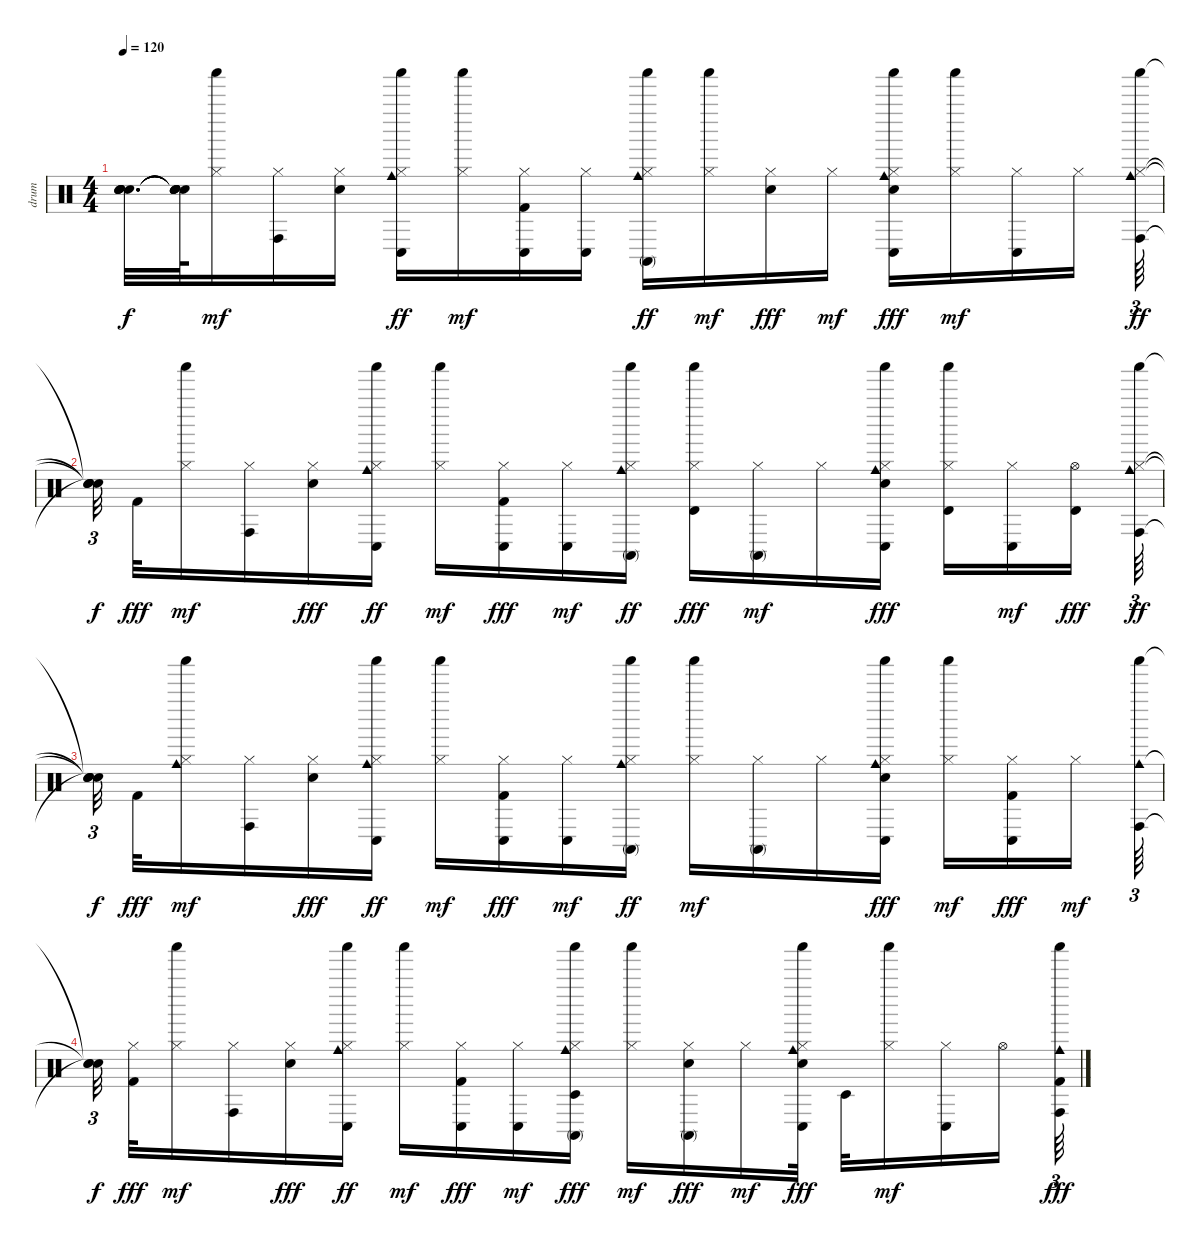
\track ("drum" "drum") {instrument percussion}
\staff {score}
\articulation defaults
\ts (4 4)
\tempo 120
\clef neutral
\ks c
("Snare (hit)"{t} "Snare (hit)"{t} "Snare (hit)"{t} "Snare (hit)"{t} "Snare (hit)"{t}).32{d dy f} ("Snare (hit)"{t} "Snare (hit)"{t} "Snare (hit)"{t} "Snare (hit)"{t} "Snare (hit)"{t}).64 ("Shaker (hit)" "Hi-Hat (closed)").16{dy mf} ("Conga high (hit)" "Hi-Hat (closed)").16 ("Electric Snare (hit)" "Hi-Hat (closed)").16 ("Conga low (hit)" "Cowbell medium (hit)" "Shaker (hit)" "Hi-Hat (closed)").16{dy ff} ("Hi-Hat (closed)" "Shaker (hit)").16{dy mf} ("Conga low (hit)" "Kick (hit) 2" "Hi-Hat (closed)").16 ("Hi-Hat (closed)" "Conga low (hit)").16 ("Cowbell medium (hit)" "Conga high (mute)" "Shaker (hit)" "Hi-Hat (closed)").16{dy ff} ("Shaker (hit)" "Hi-Hat (closed)").16{dy mf} ("Hi-Hat (closed)" "Electric Snare (hit)").16{dy fff} "Hi-Hat (closed)".16{dy mf} ("Conga low (hit)" "Shaker (hit)" "Cowbell medium (hit)" "Hi-Hat (closed)" "Electric Snare (hit)").16{dy fff} ("Shaker (hit)" "Hi-Hat (closed)").16{dy mf} ("Conga low (hit)" "Hi-Hat (closed)").16 "Hi-Hat (closed)".16 ("Conga high (hit)" "Shaker (hit)" "Cowbell medium (hit)" "Hi-Hat (closed)").64{tu (3 2) dy ff} |
("Snare (hit)"{t} "Snare (hit)"{t} "Snare (hit)"{t} "Snare (hit)"{t}).32{tu (3 2) dy f beam splitsecondary} "Kick (hit) 2".32{dy fff} ("Shaker (hit)" "Hi-Hat (closed)").16{dy mf} ("Hi-Hat (closed)" "Conga high (hit)").16 ("Hi-Hat (closed)" "Electric Snare (hit)").16{dy fff} ("Conga low (hit)" "Cowbell medium (hit)" "Shaker (hit)" "Hi-Hat (closed)").16{dy ff} ("Hi-Hat (closed)" "Shaker (hit)").16{dy mf} ("Conga low (hit)" "Hi-Hat (closed)" "Kick (hit) 2").16{dy fff} ("Conga low (hit)" "Hi-Hat (closed)").16{dy mf} ("Conga high (mute)" "Shaker (hit)" "Cowbell medium (hit)" "Hi-Hat (closed)").16{dy ff} ("Shaker (hit)" "Hi-Hat (closed)" "Timbale high (hit)").16{dy fff} ("Conga high (mute)" "Hi-Hat (closed)").16{dy mf} "Hi-Hat (closed)".16 ("Conga low (hit)" "Shaker (hit)" "Cowbell medium (hit)" "Hi-Hat (closed)" "Electric Snare (hit)").16{dy fff} ("Hi-Hat (closed)" "Shaker (hit)" "Timbale high (hit)").16 ("Conga low (hit)" "Hi-Hat (closed)").16{dy mf} ("Hi-Hat (open)" "Timbale high (hit)").16{dy fff beam splitsecondary} ("Conga high (hit)" "Shaker (hit)" "Cowbell medium (hit)" "Hi-Hat (closed)").64{tu (3 2) dy ff} |
("Snare (hit)"{t} "Snare (hit)"{t} "Snare (hit)"{t} "Snare (hit)"{t}).32{tu (3 2) dy f beam splitsecondary} "Kick (hit) 2".32{dy fff} ("Cowbell medium (hit)" "Shaker (hit)" "Hi-Hat (closed)").16{dy mf} ("Conga high (hit)" "Hi-Hat (closed)").16 ("Hi-Hat (closed)" "Electric Snare (hit)").16{dy fff} ("Conga low (hit)" "Shaker (hit)" "Cowbell medium (hit)" "Hi-Hat (closed)").16{dy ff} ("Shaker (hit)" "Hi-Hat (closed)").16{dy mf} ("Conga low (hit)" "Hi-Hat (closed)" "Kick (hit) 2").16{dy fff} ("Conga low (hit)" "Hi-Hat (closed)").16{dy mf} ("Conga high (mute)" "Cowbell medium (hit)" "Shaker (hit)" "Hi-Hat (closed)").16{dy ff} ("Shaker (hit)" "Hi-Hat (closed)").16{dy mf} ("Conga high (mute)" "Hi-Hat (closed)").16 "Hi-Hat (closed)".16 ("Conga low (hit)" "Cowbell medium (hit)" "Shaker (hit)" "Hi-Hat (closed)" "Electric Snare (hit)").16{dy fff} ("Shaker (hit)" "Hi-Hat (closed)").16{dy mf} ("Conga low (hit)" "Hi-Hat (closed)" "Kick (hit) 2").16{dy fff} "Hi-Hat (closed)".16{dy mf beam splitsecondary} ("Conga high (hit)" "Cowbell medium (hit)" "Shaker (hit)").64{tu (3 2)} |
("Snare (hit)"{t} "Snare (hit)"{t} "Snare (hit)"{t}).32{tu (3 2) dy f beam splitsecondary} ("Hi-Hat (closed)" "Kick (hit) 2").32{dy fff} ("Shaker (hit)" "Hi-Hat (closed)").16{dy mf} ("Conga high (hit)" "Hi-Hat (closed)").16 ("Hi-Hat (closed)" "Electric Snare (hit)").16{dy fff} ("Conga low (hit)" "Cowbell medium (hit)" "Shaker (hit)" "Hi-Hat (closed)").16{dy ff} ("Shaker (hit)" "Hi-Hat (closed)").16{dy mf} ("Hi-Hat (closed)" "Conga low (hit)" "Kick (hit) 2").16{dy fff} ("Conga low (hit)" "Hi-Hat (closed)").16{dy mf} ("Conga high (mute)" "Cowbell medium (hit)" "Shaker (hit)" "Hi-Hat (closed)" "Timbale low (hit)").16{dy fff} ("Shaker (hit)" "Hi-Hat (closed)").16{dy mf} ("Conga high (mute)" "Hi-Hat (closed)" "Electric Snare (hit)").16{dy fff} "Hi-Hat (closed)".16{dy mf} ("Conga low (hit)" "Hi-Hat (closed)" "Shaker (hit)" "Cowbell medium (hit)" "Electric Snare (hit)").32{dy fff} "Timbale low (hit)".32 ("Shaker (hit)" "Hi-Hat (closed)").16{dy mf} ("Conga low (hit)" "Hi-Hat (closed)").16 "Hi-Hat (open)".16{beam splitsecondary} ("Conga high (hit)" "Shaker (hit)" "Cowbell medium (hit)" "Kick (hit) 2").64{tu (3 2) dy fff}
